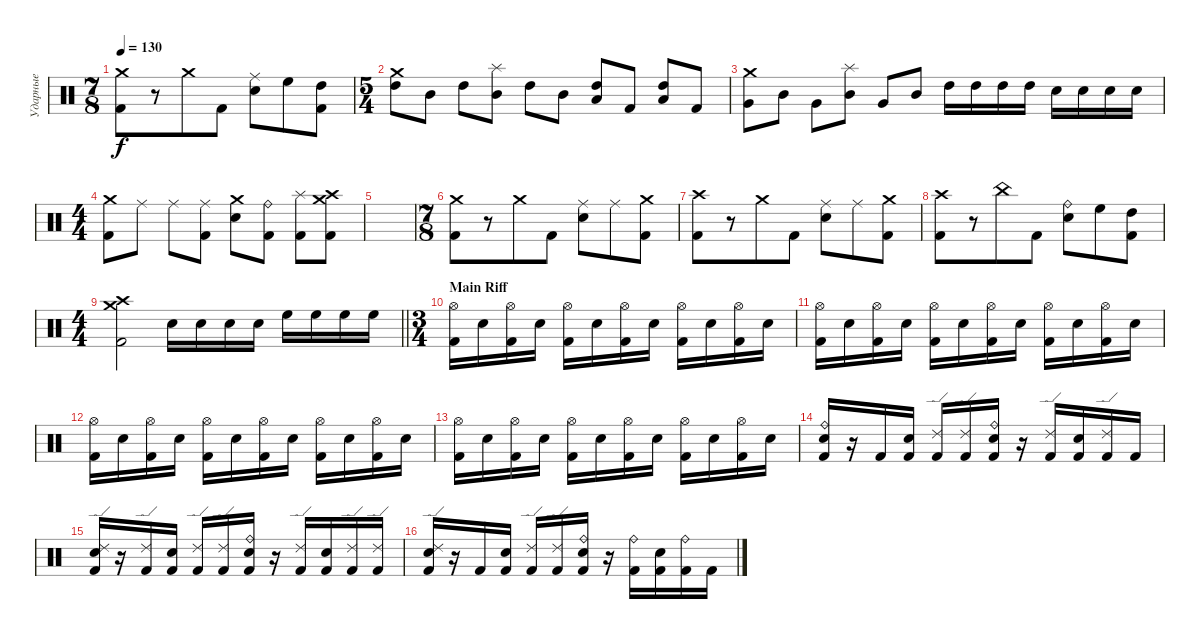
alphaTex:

\track ("Ударные" "Ударные") {instrument percussion}
\staff {score}
\articulation defaults
\ts (7 8)
\tempo 130
\clef neutral
\ks c
("Crash medium (hit)" "Kick (hit) 2").8{dy f} r.8 "Crash medium (hit)".8 "Kick (hit) 2".8 ("Ride (middle)" "Electric Snare (hit)").8 "High Floor Tom (hit)".8 ("High Tom (hit)" "Kick (hit) 2").8 |
\ts (5 4)
("Crash medium (hit)" "High Tom (hit)").8 "Mid Tom (hit)".8 "High Tom (hit)".8 ("Splash (hit)" "Mid Tom (hit)").8 "High Tom (hit)".8 "Mid Tom (hit)".8 ("High Tom (hit)" "Low Tom (hit)").8 "Kick (hit) 2".8 ("High Tom (hit)" "Low Tom (hit)").8 "Kick (hit) 2".8 |
("Crash medium (hit)" "Very Low Tom (hit)").8 "Mid Tom (hit)".8 "Very Low Tom (hit)".8 ("Splash (hit)" "Mid Tom (hit)").8 "Very Low Tom (hit)".8 "Mid Tom (hit)".8 "High Tom (hit)".16 "High Tom (hit)".16 "High Tom (hit)".16 "High Tom (hit)".16 "Electric Snare (hit)".16 "Electric Snare (hit)".16 "Electric Snare (hit)".16 "Electric Snare (hit)".16 |
\ts (4 4)
("Crash medium (hit)" "Kick (hit) 2").8 "Ride (middle)".8 "Ride (middle)".8 ("Ride (middle)" "Kick (hit) 2").8 ("Crash medium (hit)" "Electric Snare (hit)").8 ("Ride (bell)" "Kick (hit) 2").8 ("Splash (hit)" "Kick (hit) 2").8 ("Crash medium (hit)" "Crash high (hit)" "Kick (hit) 2").8 |
|
\ts (7 8)
("Crash medium (hit)" "Kick (hit) 2").8 r.8 "Crash medium (hit)".8 "Kick (hit) 2".8 ("Ride (middle)" "Electric Snare (hit)").8 "Ride (middle)".8 ("Crash medium (hit)" "Kick (hit) 2").8 |
("Crash high (hit)" "Kick (hit) 2").8 r.8 "Crash medium (hit)".8 "Kick (hit) 2".8 ("Ride (middle)" "Electric Snare (hit)").8 "Ride (middle)".8 ("Crash medium (hit)" "Kick (hit) 2").8 |
("Crash high (hit)" "Kick (hit) 2").8 r.8 "China (hit)".8 "Kick (hit) 2".8 ("Ride (bell)" "Electric Snare (hit)").8 "High Floor Tom (hit)".8 ("High Tom (hit)" "Kick (hit) 2").8 |
\ts (4 4)
\barLineRight lightlight
("Crash medium (hit)" "Crash high (hit)" "Kick (hit) 2").2 "Electric Snare (hit)".16 "Electric Snare (hit)".16 "Electric Snare (hit)".16 "Electric Snare (hit)".16 "High Floor Tom (hit)".16 "High Floor Tom (hit)".16 "High Floor Tom (hit)".16 "High Floor Tom (hit)".16 |
\ts (3 4)
\section ("" "Main Riff")
("Hi-Hat (open)" "Kick (hit) 2").16 "Snare (hit) 2".16 ("Hi-Hat (open)" "Kick (hit) 2").16 "Snare (hit) 2".16 ("Hi-Hat (open)" "Kick (hit) 2").16 "Snare (hit) 2".16 ("Hi-Hat (open)" "Kick (hit) 2").16 "Snare (hit) 2".16 ("Hi-Hat (open)" "Kick (hit) 2").16 "Snare (hit) 2".16 ("Hi-Hat (open)" "Kick (hit) 2").16 "Snare (hit) 2".16 |
("Hi-Hat (open)" "Kick (hit) 2").16 "Snare (hit) 2".16 ("Hi-Hat (open)" "Kick (hit) 2").16 "Snare (hit) 2".16 ("Hi-Hat (open)" "Kick (hit) 2").16 "Snare (hit) 2".16 ("Hi-Hat (open)" "Kick (hit) 2").16 "Snare (hit) 2".16 ("Hi-Hat (open)" "Kick (hit) 2").16 "Snare (hit) 2".16 ("Hi-Hat (open)" "Kick (hit) 2").16 "Snare (hit) 2".16 |
("Hi-Hat (open)" "Kick (hit) 2").16 "Snare (hit) 2".16 ("Hi-Hat (open)" "Kick (hit) 2").16 "Snare (hit) 2".16 ("Hi-Hat (open)" "Kick (hit) 2").16 "Snare (hit) 2".16 ("Hi-Hat (open)" "Kick (hit) 2").16 "Snare (hit) 2".16 ("Hi-Hat (open)" "Kick (hit) 2").16 "Snare (hit) 2".16 ("Hi-Hat (open)" "Kick (hit) 2").16 "Snare (hit) 2".16 |
("Hi-Hat (open)" "Kick (hit) 2").16 "Snare (hit) 2".16 ("Hi-Hat (open)" "Kick (hit) 2").16 "Snare (hit) 2".16 ("Hi-Hat (open)" "Kick (hit) 2").16 "Snare (hit) 2".16 ("Hi-Hat (open)" "Kick (hit) 2").16 "Snare (hit) 2".16 ("Hi-Hat (open)" "Kick (hit) 2").16 "Snare (hit) 2".16 ("Hi-Hat (open)" "Kick (hit) 2").16 "Snare (hit) 2".16 |
("Ride (bell)" "Snare (hit) 2" "Kick (hit) 2").16 r.16 "Kick (hit) 2".16 ("Snare (hit) 2" "Kick (hit) 2").16 ("Ride (edge) 2" "Kick (hit) 2").16 ("Ride (edge) 2" "Kick (hit) 2").16 ("Ride (bell)" "Snare (hit) 2" "Kick (hit) 2").16 r.16 ("Ride (edge) 2" "Kick (hit) 2").16 ("Snare (hit) 2" "Kick (hit) 2").16 ("Ride (edge) 2" "Kick (hit) 2").16 "Kick (hit) 2".16 |
("Ride (edge) 2" "Snare (hit) 2" "Kick (hit) 2").16 r.16 ("Ride (edge) 2" "Kick (hit) 2").16 ("Snare (hit) 2" "Kick (hit) 2").16 ("Ride (edge) 2" "Kick (hit) 2").16 ("Ride (edge) 2" "Kick (hit) 2").16 ("Ride (bell)" "Snare (hit) 2" "Kick (hit) 2").16 r.16 ("Ride (edge) 2" "Kick (hit) 2").16 ("Snare (hit) 2" "Kick (hit) 2").16 ("Ride (edge) 2" "Kick (hit) 2").16 ("Ride (edge) 2" "Kick (hit) 2").16 |
("Ride (edge) 2" "Snare (hit) 2" "Kick (hit) 2").16 r.16 "Kick (hit) 2".16 ("Snare (hit) 2" "Kick (hit) 2").16 ("Ride (edge) 2" "Kick (hit) 2").16 ("Ride (edge) 2" "Kick (hit) 2").16 ("Ride (bell)" "Snare (hit) 2" "Kick (hit) 2").16 r.16 ("Ride (bell)" "Kick (hit) 2").16 ("Snare (hit) 2" "Kick (hit) 2").16 ("Ride (bell)" "Kick (hit) 2").16 "Kick (hit) 2".16
